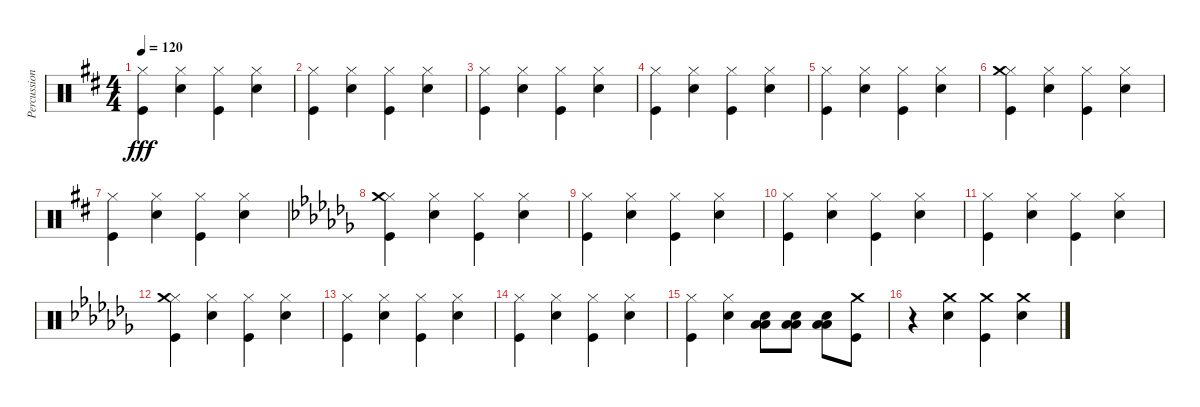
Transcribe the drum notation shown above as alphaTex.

\track ("Percussion" "Percussion") {instrument percussion}
\staff {score}
\articulation defaults
\ts (4 4)
\tempo 120
\clef neutral
\ks d
("Hi-Hat (closed)" "Kick (hit)").4{dy fff} ("Hi-Hat (closed)" "Snare (hit) 2").4 ("Hi-Hat (closed)" "Kick (hit)").4 ("Hi-Hat (closed)" "Snare (hit) 2").4 |
("Hi-Hat (closed)" "Kick (hit)").4 ("Hi-Hat (closed)" "Snare (hit) 2").4 ("Hi-Hat (closed)" "Kick (hit)").4 ("Hi-Hat (closed)" "Snare (hit) 2").4 |
("Hi-Hat (closed)" "Kick (hit)").4 ("Hi-Hat (closed)" "Snare (hit) 2").4 ("Hi-Hat (closed)" "Kick (hit)").4 ("Hi-Hat (closed)" "Snare (hit) 2").4 |
("Hi-Hat (closed)" "Kick (hit)").4 ("Hi-Hat (closed)" "Snare (hit) 2").4 ("Hi-Hat (closed)" "Kick (hit)").4 ("Hi-Hat (closed)" "Snare (hit) 2").4 |
("Hi-Hat (closed)" "Kick (hit)").4 ("Hi-Hat (closed)" "Snare (hit) 2").4 ("Hi-Hat (closed)" "Kick (hit)").4 ("Hi-Hat (closed)" "Snare (hit) 2").4 |
("Hi-Hat (closed)" "Kick (hit)" "Crash medium (hit)").4 ("Hi-Hat (closed)" "Snare (hit) 2").4 ("Hi-Hat (closed)" "Kick (hit)").4 ("Hi-Hat (closed)" "Snare (hit) 2").4 |
("Hi-Hat (closed)" "Kick (hit)").4 ("Hi-Hat (closed)" "Snare (hit) 2").4 ("Hi-Hat (closed)" "Kick (hit)").4 ("Hi-Hat (closed)" "Snare (hit) 2").4 |
\ks abminor
("Hi-Hat (closed)" "Kick (hit)" "Crash medium (hit)").4 ("Hi-Hat (closed)" "Snare (hit) 2").4 ("Hi-Hat (closed)" "Kick (hit)").4 ("Hi-Hat (closed)" "Snare (hit) 2").4 |
("Hi-Hat (closed)" "Kick (hit)").4 ("Hi-Hat (closed)" "Snare (hit) 2").4 ("Hi-Hat (closed)" "Kick (hit)").4 ("Hi-Hat (closed)" "Snare (hit) 2").4 |
("Hi-Hat (closed)" "Kick (hit)").4 ("Hi-Hat (closed)" "Snare (hit) 2").4 ("Hi-Hat (closed)" "Kick (hit)").4 ("Hi-Hat (closed)" "Snare (hit) 2").4 |
("Hi-Hat (closed)" "Kick (hit)").4 ("Hi-Hat (closed)" "Snare (hit) 2").4 ("Hi-Hat (closed)" "Kick (hit)").4 ("Hi-Hat (closed)" "Snare (hit) 2").4 |
("Hi-Hat (closed)" "Kick (hit)" "Crash medium (hit)").4 ("Hi-Hat (closed)" "Snare (hit) 2").4 ("Hi-Hat (closed)" "Kick (hit)").4 ("Hi-Hat (closed)" "Snare (hit) 2").4 |
("Hi-Hat (closed)" "Kick (hit)").4 ("Hi-Hat (closed)" "Snare (hit) 2").4 ("Hi-Hat (closed)" "Kick (hit)").4 ("Hi-Hat (closed)" "Snare (hit) 2").4 |
("Hi-Hat (closed)" "Kick (hit)").4 ("Hi-Hat (closed)" "Snare (hit) 2").4 ("Hi-Hat (closed)" "Kick (hit)").4 ("Hi-Hat (closed)" "Snare (hit) 2").4 |
("Hi-Hat (closed)" "Kick (hit)").4 ("Hi-Hat (closed)" "Snare (hit) 2").4 ("Snare (hit) 2" "Low Tom (hit)" "Low Floor Tom (hit)").8 ("Snare (hit) 2" "Low Tom (hit)" "Low Floor Tom (hit)").8 ("Snare (hit) 2" "Low Tom (hit)" "Low Floor Tom (hit)").8 ("Crash medium (hit)" "Kick (hit)").8 |
r.4 ("Crash medium (hit)" "Snare (hit) 2").4 ("Crash medium (hit)" "Kick (hit)").4 ("Crash medium (hit)" "Snare (hit) 2").4
